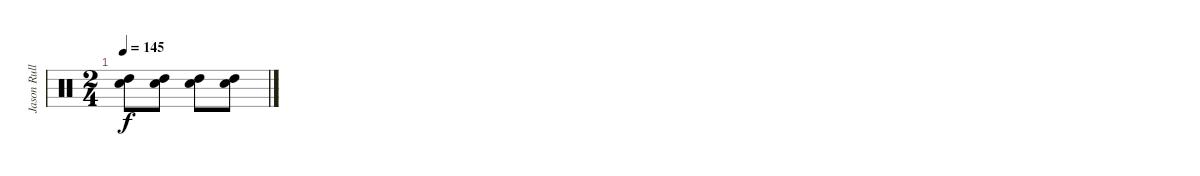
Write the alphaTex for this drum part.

\track ("Jason Rullo" "Jason Rull") {instrument percussion}
\staff {score}
\articulation defaults
\ts (2 4)
\tempo 145
\clef neutral
\ks c
("High Tom (hit)" "Electric Snare (hit)").8{dy f} ("High Tom (hit)" "Electric Snare (hit)").8 ("High Tom (hit)" "Electric Snare (hit)").8 ("High Tom (hit)" "Electric Snare (hit)").8
